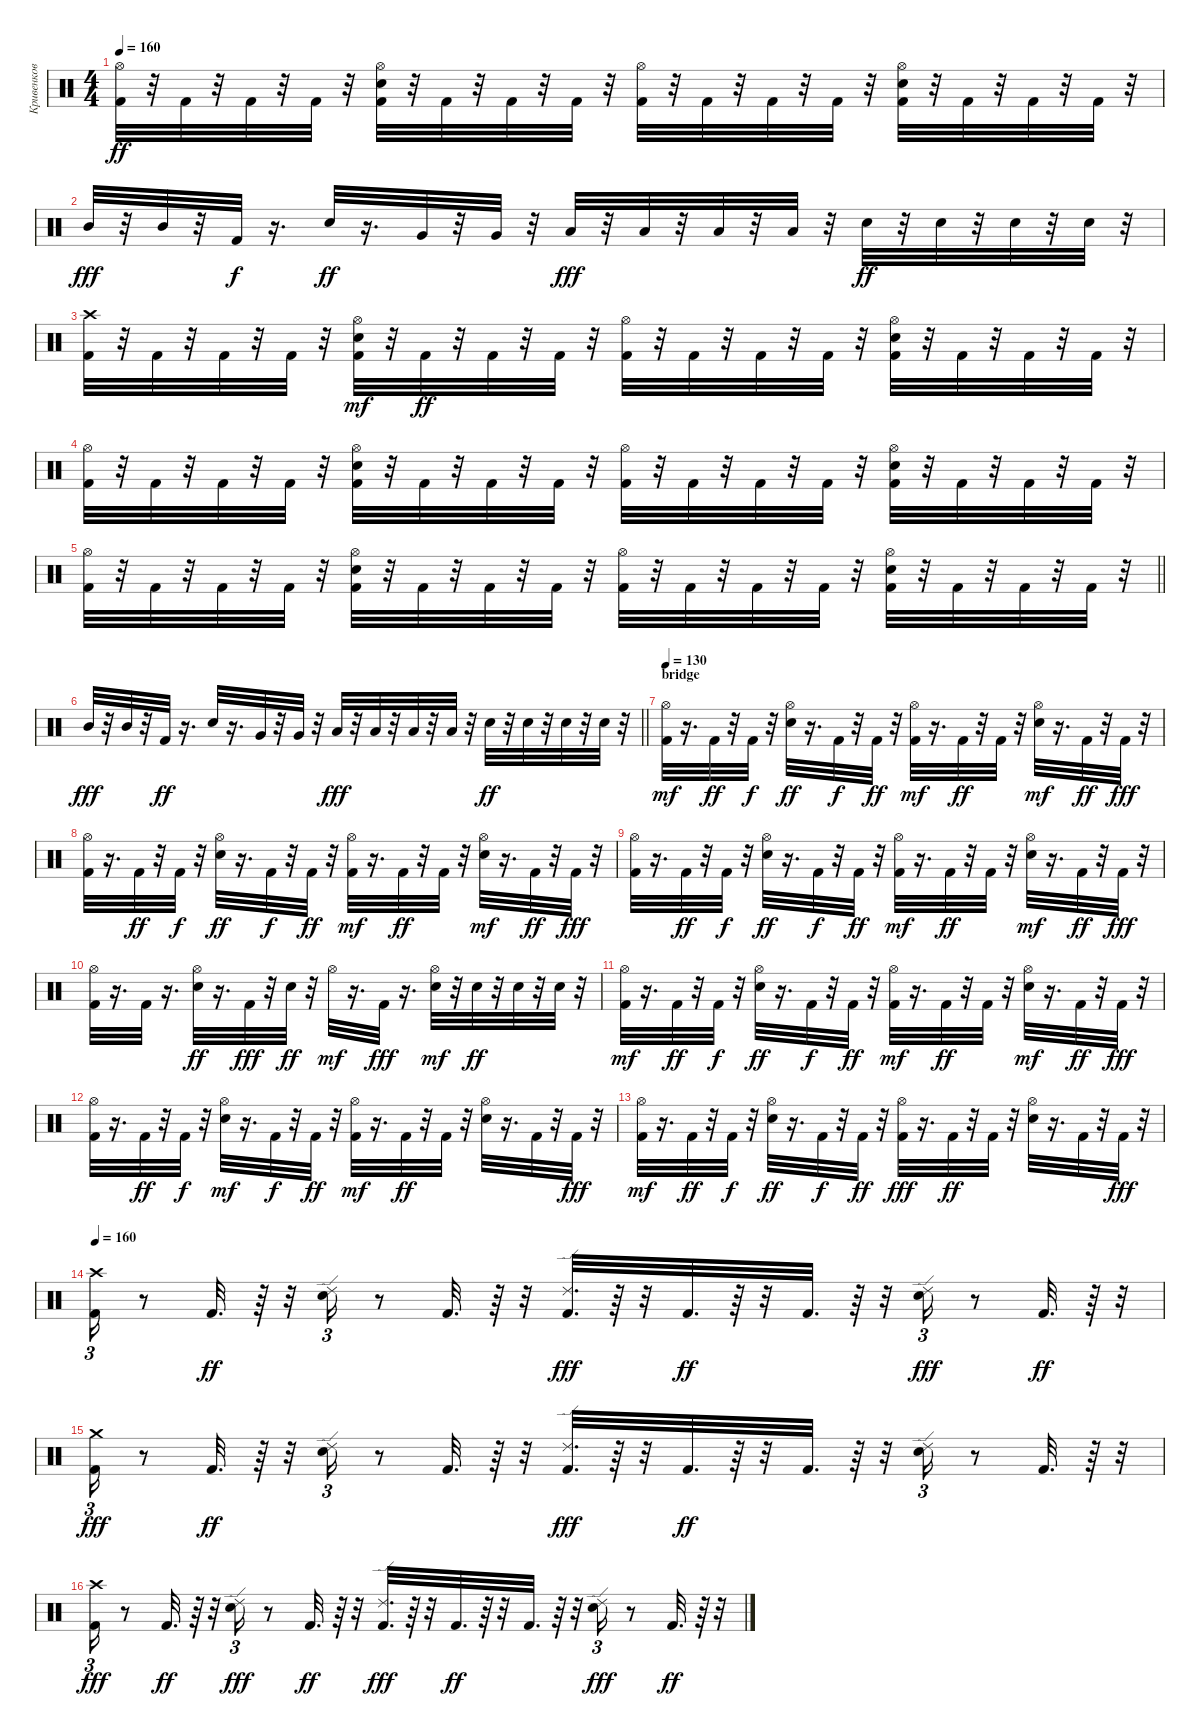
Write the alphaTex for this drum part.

\track ("Кривенков" "Кривенков") {instrument percussion}
\staff {score}
\articulation defaults
\ts (4 4)
\tempo 160
\clef neutral
\ks c
("Hi-Hat (open)" "Kick (hit) 2").32{dy ff} r.32 "Kick (hit) 2".32 r.32 "Kick (hit) 2".32 r.32 "Kick (hit) 2".32 r.32 ("Hi-Hat (open)" "Electric Snare (hit)" "Kick (hit) 2").32 r.32 "Kick (hit) 2".32 r.32 "Kick (hit) 2".32 r.32 "Kick (hit) 2".32 r.32 ("Hi-Hat (open)" "Kick (hit) 2").32 r.32 "Kick (hit) 2".32 r.32 "Kick (hit) 2".32 r.32 "Kick (hit) 2".32 r.32 ("Hi-Hat (open)" "Electric Snare (hit)" "Kick (hit) 2").32 r.32 "Kick (hit) 2".32 r.32 "Kick (hit) 2".32 r.32 "Kick (hit) 2".32 r.32 |
"Mid Tom (hit)".32{dy fff} r.32 "Mid Tom (hit)".32 r.32 "Kick (hit) 2".32{dy f} r.16{d} "Electric Snare (hit)".32{dy ff} r.16{d} "Very Low Tom (hit)".32 r.32 "Very Low Tom (hit)".32 r.32 "Low Tom (hit)".32{dy fff} r.32 "Low Tom (hit)".32 r.32 "Low Tom (hit)".32 r.32 "Low Tom (hit)".32 r.32 "Electric Snare (hit)".32{dy ff} r.32 "Electric Snare (hit)".32 r.32 "Electric Snare (hit)".32 r.32 "Electric Snare (hit)".32 r.32 |
("Kick (hit) 2" "Crash high (hit)").32 r.32 "Kick (hit) 2".32 r.32 "Kick (hit) 2".32 r.32 "Kick (hit) 2".32 r.32 ("Kick (hit) 2" "Electric Snare (hit)" "Hi-Hat (open)").32{dy mf} r.32 "Kick (hit) 2".32{dy ff} r.32 "Kick (hit) 2".32 r.32 "Kick (hit) 2".32 r.32 ("Hi-Hat (open)" "Kick (hit) 2").32 r.32 "Kick (hit) 2".32 r.32 "Kick (hit) 2".32 r.32 "Kick (hit) 2".32 r.32 ("Electric Snare (hit)" "Hi-Hat (open)" "Kick (hit) 2").32 r.32 "Kick (hit) 2".32 r.32 "Kick (hit) 2".32 r.32 "Kick (hit) 2".32 r.32 |
("Hi-Hat (open)" "Kick (hit) 2").32 r.32 "Kick (hit) 2".32 r.32 "Kick (hit) 2".32 r.32 "Kick (hit) 2".32 r.32 ("Hi-Hat (open)" "Electric Snare (hit)" "Kick (hit) 2").32 r.32 "Kick (hit) 2".32 r.32 "Kick (hit) 2".32 r.32 "Kick (hit) 2".32 r.32 ("Hi-Hat (open)" "Kick (hit) 2").32 r.32 "Kick (hit) 2".32 r.32 "Kick (hit) 2".32 r.32 "Kick (hit) 2".32 r.32 ("Electric Snare (hit)" "Hi-Hat (open)" "Kick (hit) 2").32 r.32 "Kick (hit) 2".32 r.32 "Kick (hit) 2".32 r.32 "Kick (hit) 2".32 r.32 |
\barLineRight lightlight
("Hi-Hat (open)" "Kick (hit) 2").32 r.32 "Kick (hit) 2".32 r.32 "Kick (hit) 2".32 r.32 "Kick (hit) 2".32 r.32 ("Electric Snare (hit)" "Hi-Hat (open)" "Kick (hit) 2").32 r.32 "Kick (hit) 2".32 r.32 "Kick (hit) 2".32 r.32 "Kick (hit) 2".32 r.32 ("Hi-Hat (open)" "Kick (hit) 2").32 r.32 "Kick (hit) 2".32 r.32 "Kick (hit) 2".32 r.32 "Kick (hit) 2".32 r.32 ("Hi-Hat (open)" "Electric Snare (hit)" "Kick (hit) 2").32 r.32 "Kick (hit) 2".32 r.32 "Kick (hit) 2".32 r.32 "Kick (hit) 2".32 r.32 |
\barLineRight lightlight "Mid Tom (hit)".32{dy fff}
r.32 "Mid Tom (hit)".32 r.32 "Kick (hit) 2".32{dy ff} r.16{d} "Electric Snare (hit)".32 r.16{d} "Very Low Tom (hit)".32 r.32 "Very Low Tom (hit)".32 r.32 "Low Tom (hit)".32{dy fff} r.32 "Low Tom (hit)".32 r.32 "Low Tom (hit)".32 r.32 "Low Tom (hit)".32 r.32 "Electric Snare (hit)".32{dy ff} r.32 "Electric Snare (hit)".32 r.32 "Electric Snare (hit)".32 r.32 "Electric Snare (hit)".32 r.32 |
\section ("" "bridge")
\tempo 130
("Kick (hit) 2" "Hi-Hat (open)").32{dy mf} r.16{d} "Kick (hit) 2".32{dy ff} r.32 "Kick (hit) 2".32{dy f} r.32 ("Hi-Hat (open)" "Electric Snare (hit)").32{dy ff} r.16{d} "Kick (hit) 2".32{dy f} r.32 "Kick (hit) 2".32{dy ff} r.32 ("Kick (hit) 2" "Hi-Hat (open)").32{dy mf} r.16{d} "Kick (hit) 2".32{dy ff} r.32 "Kick (hit) 2".32 r.32 ("Electric Snare (hit)" "Hi-Hat (open)").32{dy mf} r.16{d} "Kick (hit) 2".32{dy ff} r.32 "Kick (hit) 2".32{dy fff} r.32 |
("Hi-Hat (open)" "Kick (hit) 2").32 r.16{d} "Kick (hit) 2".32{dy ff} r.32 "Kick (hit) 2".32{dy f} r.32 ("Hi-Hat (open)" "Electric Snare (hit)").32{dy ff} r.16{d} "Kick (hit) 2".32{dy f} r.32 "Kick (hit) 2".32{dy ff} r.32 ("Kick (hit) 2" "Hi-Hat (open)").32{dy mf} r.16{d} "Kick (hit) 2".32{dy ff} r.32 "Kick (hit) 2".32 r.32 ("Electric Snare (hit)" "Hi-Hat (open)").32{dy mf} r.16{d} "Kick (hit) 2".32{dy ff} r.32 "Kick (hit) 2".32{dy fff} r.32 |
("Hi-Hat (open)" "Kick (hit) 2").32 r.16{d} "Kick (hit) 2".32{dy ff} r.32 "Kick (hit) 2".32{dy f} r.32 ("Hi-Hat (open)" "Electric Snare (hit)").32{dy ff} r.16{d} "Kick (hit) 2".32{dy f} r.32 "Kick (hit) 2".32{dy ff} r.32 ("Kick (hit) 2" "Hi-Hat (open)").32{dy mf} r.16{d} "Kick (hit) 2".32{dy ff} r.32 "Kick (hit) 2".32 r.32 ("Electric Snare (hit)" "Hi-Hat (open)").32{dy mf} r.16{d} "Kick (hit) 2".32{dy ff} r.32 "Kick (hit) 2".32{dy fff} r.32 |
("Hi-Hat (open)" "Kick (hit) 2").32 r.16{d} "Kick (hit) 2".32 r.16{d} ("Hi-Hat (open)" "Electric Snare (hit)").32{dy ff} r.16{d} "Kick (hit) 2".32{dy fff} r.32 "Electric Snare (hit)".32{dy ff} r.32 "Hi-Hat (open)".32{dy mf} r.16{d} "Kick (hit) 2".32{dy fff} r.16{d} ("Electric Snare (hit)" "Hi-Hat (open)").32{dy mf} r.32 "Electric Snare (hit)".32{dy ff} r.32 "Electric Snare (hit)".32 r.32 "Electric Snare (hit)".32 r.32 |
("Kick (hit) 2" "Hi-Hat (open)").32{dy mf} r.16{d} "Kick (hit) 2".32{dy ff} r.32 "Kick (hit) 2".32{dy f} r.32 ("Hi-Hat (open)" "Electric Snare (hit)").32{dy ff} r.16{d} "Kick (hit) 2".32{dy f} r.32 "Kick (hit) 2".32{dy ff} r.32 ("Kick (hit) 2" "Hi-Hat (open)").32{dy mf} r.16{d} "Kick (hit) 2".32{dy ff} r.32 "Kick (hit) 2".32 r.32 ("Electric Snare (hit)" "Hi-Hat (open)").32{dy mf} r.16{d} "Kick (hit) 2".32{dy ff} r.32 "Kick (hit) 2".32{dy fff} r.32 |
("Hi-Hat (open)" "Kick (hit) 2").32 r.16{d} "Kick (hit) 2".32{dy ff} r.32 "Kick (hit) 2".32{dy f} r.32 ("Electric Snare (hit)" "Hi-Hat (open)").32{dy mf} r.16{d} "Kick (hit) 2".32{dy f} r.32 "Kick (hit) 2".32{dy ff} r.32 ("Kick (hit) 2" "Hi-Hat (open)").32{dy mf} r.16{d} "Kick (hit) 2".32{dy ff} r.32 "Kick (hit) 2".32 r.32 ("Hi-Hat (open)" "Electric Snare (hit)").32 r.16{d} "Kick (hit) 2".32 r.32 "Kick (hit) 2".32{dy fff} r.32 |
("Kick (hit) 2" "Hi-Hat (open)").32{dy mf} r.16{d} "Kick (hit) 2".32{dy ff} r.32 "Kick (hit) 2".32{dy f} r.32 ("Hi-Hat (open)" "Electric Snare (hit)").32{dy ff} r.16{d} "Kick (hit) 2".32{dy f} r.32 "Kick (hit) 2".32{dy ff} r.32 ("Hi-Hat (open)" "Kick (hit) 2").32{dy fff} r.16{d} "Kick (hit) 2".32{dy ff} r.32 "Kick (hit) 2".32 r.32 ("Hi-Hat (open)" "Electric Snare (hit)").32 r.16{d} "Kick (hit) 2".32 r.32 "Kick (hit) 2".32{dy fff} r.32 |
\tempo 160
("Kick (hit) 2" "Crash high (hit)").16{tu (3 2)} r.8 "Kick (hit) 2".32{d dy ff} r.64 r.32 ("Ride (edge) 2" "Electric Snare (hit)").16{tu (3 2)} r.8 "Kick (hit) 2".32{d} r.64 r.32 ("Kick (hit) 2" "Ride (edge) 2").32{d dy fff} r.64 r.32 "Kick (hit) 2".32{d dy ff} r.64 r.32 "Kick (hit) 2".32{d} r.64 r.32 ("Electric Snare (hit)" "Ride (edge) 2").16{tu (3 2) dy fff} r.8 "Kick (hit) 2".32{d dy ff} r.64 r.32 |
("Crash medium (hit)" "Kick (hit) 2").16{tu (3 2) dy fff} r.8 "Kick (hit) 2".32{d dy ff} r.64 r.32 ("Ride (edge) 2" "Electric Snare (hit)").16{tu (3 2)} r.8 "Kick (hit) 2".32{d} r.64 r.32 ("Ride (edge) 2" "Kick (hit) 2").32{d dy fff} r.64 r.32 "Kick (hit) 2".32{d dy ff} r.64 r.32 "Kick (hit) 2".32{d} r.64 r.32 ("Ride (edge) 2" "Electric Snare (hit)").16{tu (3 2)} r.8 "Kick (hit) 2".32{d} r.64 r.32 |
("Crash high (hit)" "Kick (hit) 2").16{tu (3 2) dy fff} r.8 "Kick (hit) 2".32{d dy ff} r.64 r.32 ("Electric Snare (hit)" "Ride (edge) 2").16{tu (3 2) dy fff} r.8 "Kick (hit) 2".32{d dy ff} r.64 r.32 ("Ride (edge) 2" "Kick (hit) 2").32{d dy fff} r.64 r.32 "Kick (hit) 2".32{d dy ff} r.64 r.32 "Kick (hit) 2".32{d} r.64 r.32 ("Electric Snare (hit)" "Ride (edge) 2").16{tu (3 2) dy fff} r.8 "Kick (hit) 2".32{d dy ff} r.64 r.32
